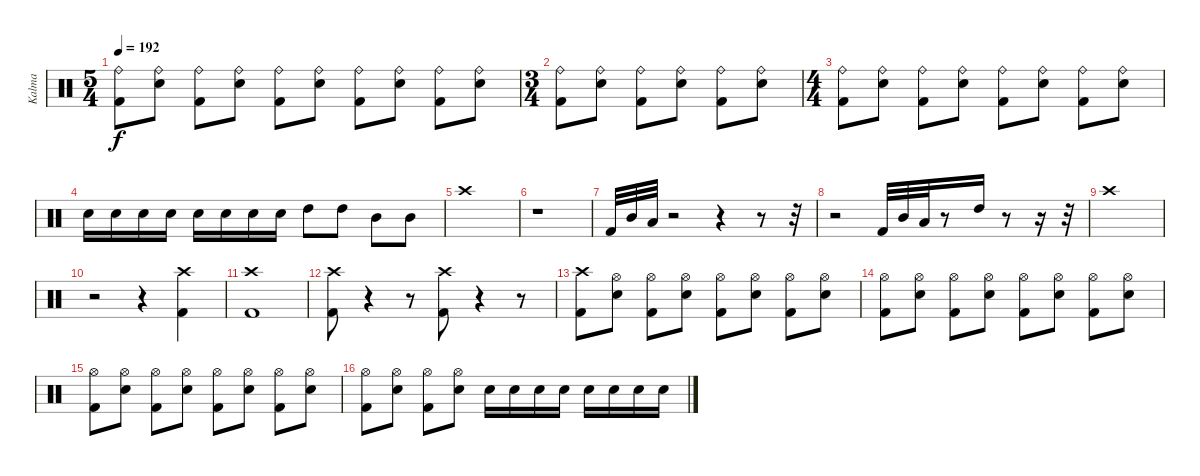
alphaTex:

\track ("Kalma" "Kalma") {instrument percussion}
\staff {score}
\articulation defaults
\ts (5 4)
\tempo 192
\clef neutral
\ks c
("Ride (bell)" "Kick (hit) 2").8{dy f} ("Ride (bell)" "Snare (hit) 2").8 ("Ride (bell)" "Kick (hit) 2").8 ("Ride (bell)" "Snare (hit) 2").8 ("Ride (bell)" "Kick (hit) 2").8 ("Ride (bell)" "Snare (hit) 2").8 ("Ride (bell)" "Kick (hit) 2").8 ("Ride (bell)" "Snare (hit) 2").8 ("Ride (bell)" "Kick (hit) 2").8 ("Ride (bell)" "Snare (hit) 2").8 |
\ts (3 4)
("Ride (bell)" "Kick (hit) 2").8 ("Ride (bell)" "Snare (hit) 2").8 ("Ride (bell)" "Kick (hit) 2").8 ("Ride (bell)" "Snare (hit) 2").8 ("Ride (bell)" "Kick (hit) 2").8 ("Ride (bell)" "Snare (hit) 2").8 |
\ts (4 4)
("Ride (bell)" "Kick (hit) 2").8 ("Ride (bell)" "Snare (hit) 2").8 ("Ride (bell)" "Kick (hit) 2").8 ("Ride (bell)" "Snare (hit) 2").8 ("Ride (bell)" "Kick (hit) 2").8 ("Ride (bell)" "Snare (hit) 2").8 ("Ride (bell)" "Kick (hit) 2").8 ("Ride (bell)" "Snare (hit) 2").8 |
"Snare (hit) 2".16 "Snare (hit) 2".16 "Snare (hit) 2".16 "Snare (hit) 2".16 "Snare (hit) 2".16 "Snare (hit) 2".16 "Snare (hit) 2".16 "Snare (hit) 2".16 "High Tom (hit)".8 "High Tom (hit)".8 "Mid Tom (hit)".8 "Mid Tom (hit)".8 |
"Crash high (hit)".1 |
r.1 |
"Kick (hit) 2".32 "Mid Tom (hit)".32 "Low Floor Tom (hit)".32 r.2 r.4 r.8 r.32 |
r.2 "Kick (hit) 2".32 "Mid Tom (hit)".32 "Low Floor Tom (hit)".32 r.8 "High Tom (hit)".16 r.8 r.16 r.32 |
"Crash high (hit)".1 |
r.2 r.4 ("Crash high (hit)" "Kick (hit) 2").4 |
("Crash high (hit)" "Kick (hit) 2").1 |
("Crash high (hit)" "Kick (hit) 2").8 r.4 r.8 ("Crash high (hit)" "Kick (hit) 2").8 r.4 r.8 |
("Crash high (hit)" "Kick (hit) 2").8 ("Hi-Hat (open)" "Snare (hit) 2").8 ("Hi-Hat (open)" "Kick (hit) 2").8 ("Hi-Hat (open)" "Snare (hit) 2").8 ("Hi-Hat (open)" "Kick (hit) 2").8 ("Hi-Hat (open)" "Snare (hit) 2").8 ("Hi-Hat (open)" "Kick (hit) 2").8 ("Hi-Hat (open)" "Snare (hit) 2").8 |
("Hi-Hat (open)" "Kick (hit) 2").8 ("Hi-Hat (open)" "Snare (hit) 2").8 ("Hi-Hat (open)" "Kick (hit) 2").8 ("Hi-Hat (open)" "Snare (hit) 2").8 ("Hi-Hat (open)" "Kick (hit) 2").8 ("Hi-Hat (open)" "Snare (hit) 2").8 ("Hi-Hat (open)" "Kick (hit) 2").8 ("Hi-Hat (open)" "Snare (hit) 2").8 |
("Hi-Hat (open)" "Kick (hit) 2").8 ("Hi-Hat (open)" "Snare (hit) 2").8 ("Hi-Hat (open)" "Kick (hit) 2").8 ("Hi-Hat (open)" "Snare (hit) 2").8 ("Hi-Hat (open)" "Kick (hit) 2").8 ("Hi-Hat (open)" "Snare (hit) 2").8 ("Hi-Hat (open)" "Kick (hit) 2").8 ("Hi-Hat (open)" "Snare (hit) 2").8 |
("Hi-Hat (open)" "Kick (hit) 2").8 ("Hi-Hat (open)" "Snare (hit) 2").8 ("Hi-Hat (open)" "Kick (hit) 2").8 ("Hi-Hat (open)" "Snare (hit) 2").8 "Snare (hit) 2".16 "Snare (hit) 2".16 "Snare (hit) 2".16 "Snare (hit) 2".16 "Snare (hit) 2".16 "Snare (hit) 2".16 "Snare (hit) 2".16 "Snare (hit) 2".16
